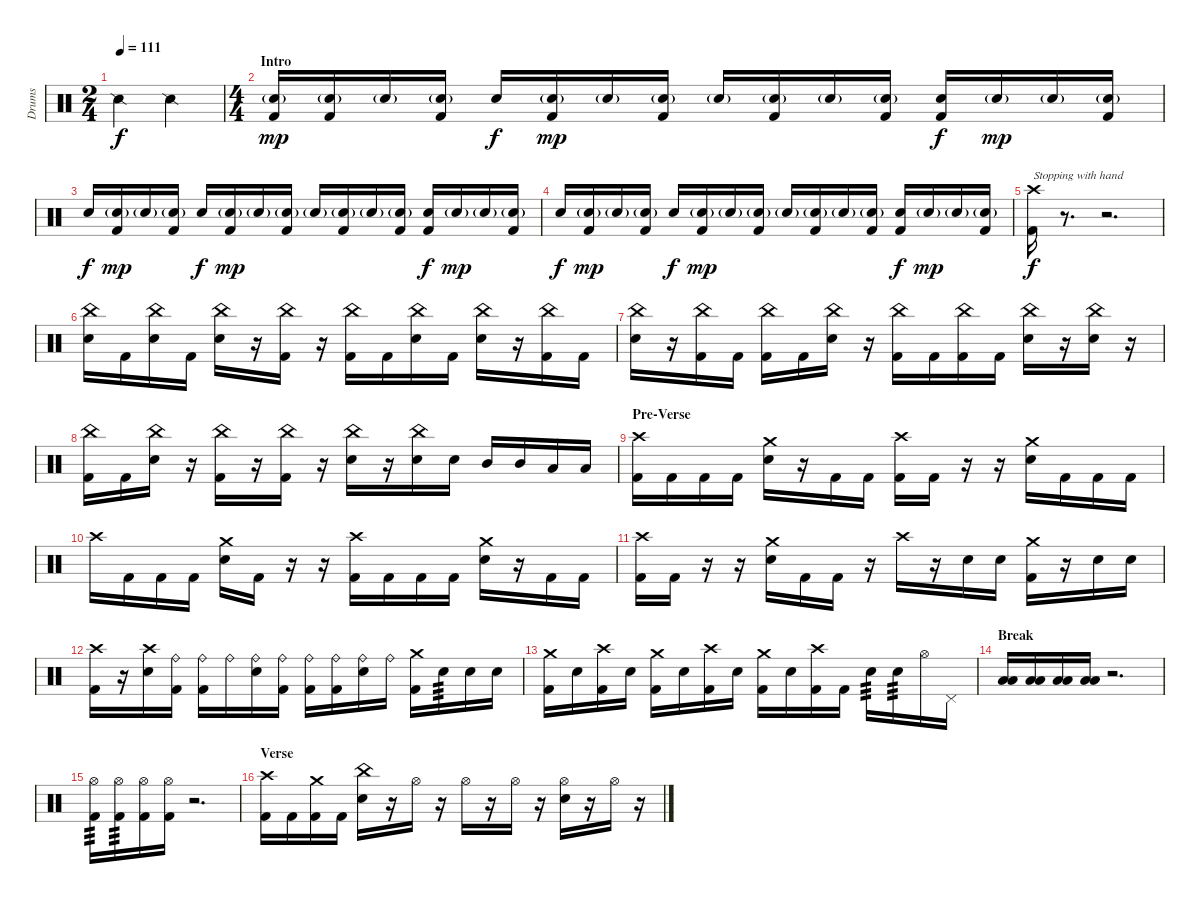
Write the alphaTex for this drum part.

\track ("Drums" "Drums") {instrument percussion}
\staff {score}
\articulation defaults
\ts (2 4)
\tempo 111
\clef neutral
\ks c "Snare (side stick) 2".4{dy f} "Snare (side stick) 2".4
|
\ts (4 4)
\section ("" "Intro")
("Electric Snare (hit)"{g} "Kick (hit) 2").16{dy mp} ("Electric Snare (hit)"{g} "Kick (hit) 2").16 "Electric Snare (hit)"{g}.16 ("Electric Snare (hit)"{g} "Kick (hit) 2").16 "Electric Snare (hit)".16{dy f} ("Electric Snare (hit)"{g} "Kick (hit) 2").16{dy mp} "Electric Snare (hit)"{g}.16 ("Electric Snare (hit)"{g} "Kick (hit) 2").16 "Electric Snare (hit)"{g}.16 ("Electric Snare (hit)"{g} "Kick (hit) 2").16 "Electric Snare (hit)"{g}.16 ("Electric Snare (hit)"{g} "Kick (hit) 2").16 ("Electric Snare (hit)" "Kick (hit) 2").16{dy f} "Electric Snare (hit)"{g}.16{dy mp} "Electric Snare (hit)"{g}.16 ("Electric Snare (hit)"{g} "Kick (hit) 2").16 |
"Electric Snare (hit)".16{dy f} ("Electric Snare (hit)"{g} "Kick (hit) 2").16{dy mp} "Electric Snare (hit)"{g}.16 ("Electric Snare (hit)"{g} "Kick (hit) 2").16 "Electric Snare (hit)".16{dy f} ("Electric Snare (hit)"{g} "Kick (hit) 2").16{dy mp} "Electric Snare (hit)"{g}.16 ("Electric Snare (hit)"{g} "Kick (hit) 2").16 "Electric Snare (hit)"{g}.16 ("Electric Snare (hit)"{g} "Kick (hit) 2").16 "Electric Snare (hit)"{g}.16 ("Electric Snare (hit)"{g} "Kick (hit) 2").16 ("Electric Snare (hit)" "Kick (hit) 2").16{dy f} "Electric Snare (hit)"{g}.16{dy mp} "Electric Snare (hit)"{g}.16 ("Electric Snare (hit)"{g} "Kick (hit) 2").16 |
"Electric Snare (hit)".16{dy f} ("Electric Snare (hit)"{g} "Kick (hit) 2").16{dy mp} "Electric Snare (hit)"{g}.16 ("Electric Snare (hit)"{g} "Kick (hit) 2").16 "Electric Snare (hit)".16{dy f} ("Electric Snare (hit)"{g} "Kick (hit) 2").16{dy mp} "Electric Snare (hit)"{g}.16 ("Electric Snare (hit)"{g} "Kick (hit) 2").16 "Electric Snare (hit)"{g}.16 ("Electric Snare (hit)"{g} "Kick (hit) 2").16 "Electric Snare (hit)"{g}.16 ("Electric Snare (hit)"{g} "Kick (hit) 2").16 ("Electric Snare (hit)" "Kick (hit) 2").16{dy f} "Electric Snare (hit)"{g}.16{dy mp} "Electric Snare (hit)"{g}.16 ("Electric Snare (hit)"{g} "Kick (hit) 2").16 |
("Crash high (hit)" "Kick (hit) 2").16{txt "Stopping with hand" dy f} r.8{d volume 0} r.2{d} |
("China (hit)" "Electric Snare (hit)").16{volume 14} "Kick (hit) 2".16 ("China (hit)" "Electric Snare (hit)").16 "Kick (hit) 2".16 ("China (hit)" "Electric Snare (hit)").16 r.16 ("China (hit)" "Kick (hit) 2").16 r.16 ("China (hit)" "Kick (hit) 2").16 "Kick (hit) 2".16 ("China (hit)" "Electric Snare (hit)").16 "Kick (hit) 2".16 ("China (hit)" "Electric Snare (hit)").16 r.16 ("China (hit)" "Kick (hit) 2").16 "Kick (hit) 2".16 |
("China (hit)" "Electric Snare (hit)").16 r.16 ("China (hit)" "Kick (hit) 2").16 "Kick (hit) 2".16 ("China (hit)" "Kick (hit) 2").16 "Kick (hit) 2".16 ("China (hit)" "Electric Snare (hit)").16 r.16 ("China (hit)" "Kick (hit) 2").16 "Kick (hit) 2".16 ("China (hit)" "Kick (hit) 2").16 "Kick (hit) 2".16 ("China (hit)" "Electric Snare (hit)").16 r.16 ("China (hit)" "Electric Snare (hit)").16 r.16 |
("China (hit)" "Kick (hit) 2").16 "Kick (hit) 2".16 ("China (hit)" "Electric Snare (hit)").16 r.16 ("China (hit)" "Kick (hit) 2").16 r.16 ("China (hit)" "Kick (hit) 2").16 r.16 ("China (hit)" "Electric Snare (hit)").16 r.16 ("China (hit)" "Electric Snare (hit)").16 "Electric Snare (hit)".16 "Mid Tom (hit)".16 "Mid Tom (hit)".16 "Low Tom (hit)".16 "Low Tom (hit)".16 |
\section ("" "Pre-Verse")
("Crash high (hit)" "Kick (hit) 2").16 "Kick (hit) 2".16 "Kick (hit) 2".16 "Kick (hit) 2".16 ("Crash medium (hit)" "Electric Snare (hit)").16 r.16 "Kick (hit) 2".16 "Kick (hit) 2".16 ("Crash high (hit)" "Kick (hit) 2").16 "Kick (hit) 2".16 r.16 r.16 ("Crash medium (hit)" "Electric Snare (hit)").16 "Kick (hit) 2".16 "Kick (hit) 2".16 "Kick (hit) 2".16 |
"Crash high (hit)".16 "Kick (hit) 2".16 "Kick (hit) 2".16 "Kick (hit) 2".16 ("Crash medium (hit)" "Electric Snare (hit)").16 "Kick (hit) 2".16 r.16 r.16 ("Crash high (hit)" "Kick (hit) 2").16 "Kick (hit) 2".16 "Kick (hit) 2".16 "Kick (hit) 2".16 ("Crash medium (hit)" "Electric Snare (hit)").16 r.16 "Kick (hit) 2".16 "Kick (hit) 2".16 |
("Crash high (hit)" "Kick (hit) 2").16 "Kick (hit) 2".16 r.16 r.16 ("Crash medium (hit)" "Electric Snare (hit)").16 "Kick (hit) 2".16 "Kick (hit) 2".16 r.16 "Crash high (hit)".16 r.16 "Electric Snare (hit)".16 "Electric Snare (hit)".16 ("Crash medium (hit)" "Kick (hit) 2").16 r.16 "Electric Snare (hit)".16 "Electric Snare (hit)".16 |
("Crash high (hit)" "Kick (hit) 2").16 r.16 ("Crash high (hit)" "Electric Snare (hit)").16 ("Ride (bell)" "Kick (hit) 2").16 ("Ride (bell)" "Kick (hit) 2").16 "Ride (bell)".16 ("Ride (bell)" "Electric Snare (hit)").16 ("Ride (bell)" "Kick (hit) 2").16 ("Ride (bell)" "Kick (hit) 2").16 ("Ride (bell)" "Kick (hit) 2").16 ("Ride (bell)" "Electric Snare (hit)").16 "Ride (bell)".16 ("Crash medium (hit)" "Kick (hit) 2").16 "Electric Snare (hit)".16{tp 3} "Electric Snare (hit)".16 "Electric Snare (hit)".16 |
("Crash medium (hit)" "Kick (hit) 2").16 "Electric Snare (hit)".16 ("Crash high (hit)" "Kick (hit) 2").16 "Electric Snare (hit)".16 ("Crash medium (hit)" "Kick (hit) 2").16 "Electric Snare (hit)".16 ("Crash high (hit)" "Kick (hit) 2").16 "Electric Snare (hit)".16 ("Crash medium (hit)" "Kick (hit) 2").16 "Electric Snare (hit)".16 ("Crash high (hit)" "Kick (hit) 2").16 "Kick (hit) 2".16 "Electric Snare (hit)".16{tp 3} "Electric Snare (hit)".16{tp 3} "Hi-Hat (open)".16 "Pedal Hi-Hat (hit)".16 |
\section ("" "Break")
("Low Tom (hit)" "Low Floor Tom (hit)").16 ("Low Tom (hit)" "Low Floor Tom (hit)").16 ("Low Tom (hit)" "Low Floor Tom (hit)").16 ("Low Tom (hit)" "Low Floor Tom (hit)").16 r.2{d} |
("Hi-Hat (open)" "Kick (hit) 2").16{tp 3} ("Hi-Hat (open)" "Kick (hit) 2").16{tp 3} ("Hi-Hat (open)" "Kick (hit) 2").16 ("Hi-Hat (open)" "Kick (hit) 2").16 r.2{d} |
\section ("" "Verse")
("Crash high (hit)" "Kick (hit) 2").16 "Kick (hit) 2".16 ("Crash medium (hit)" "Kick (hit) 2").16 "Kick (hit) 2".16 ("China (hit)" "Electric Snare (hit)").16 r.16 "Hi-Hat (open)".16 r.16 "Hi-Hat (open)".16 r.16 "Hi-Hat (open)".16 r.16 ("Hi-Hat (open)" "Electric Snare (hit)").16 r.16 "Hi-Hat (open)".16 r.16
